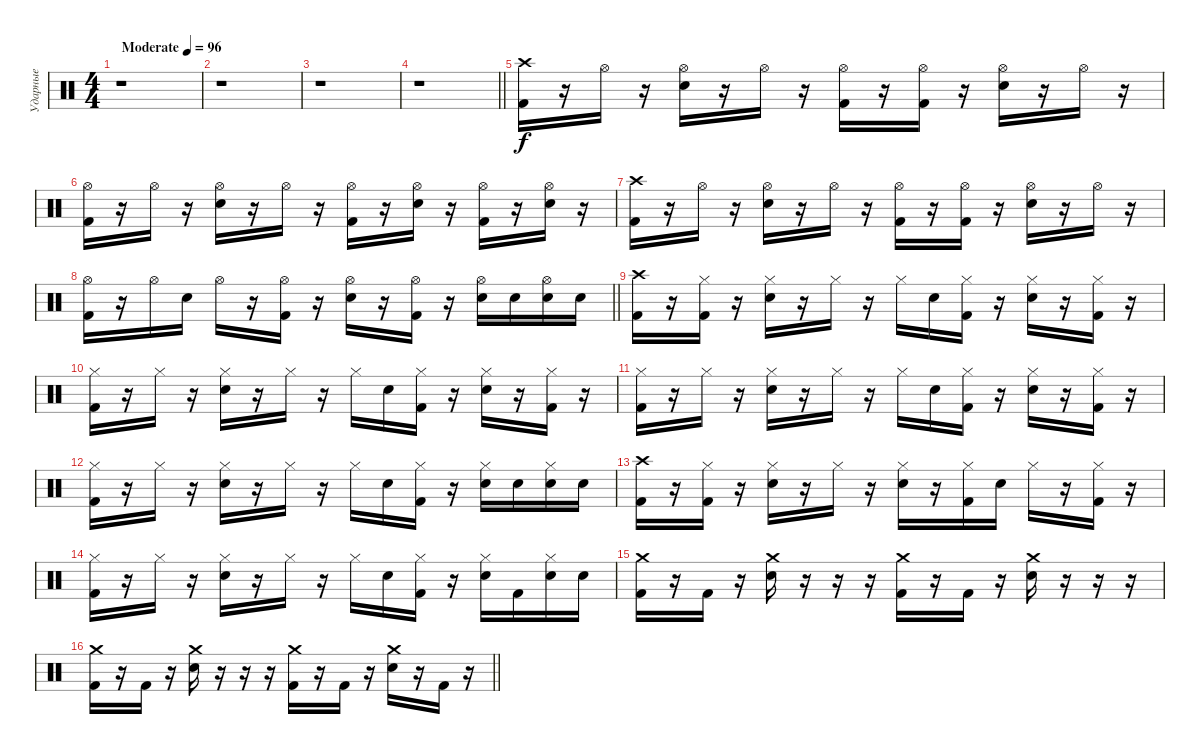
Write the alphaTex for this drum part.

\track ("Ударные" "Ударные") {instrument percussion}
\staff {score}
\articulation defaults
\ts (4 4)
\tempo (96 "Moderate")
\clef neutral
\ks c
r.1{dy f} |
r.1 |
r.1 |
\barLineRight lightlight
r.1 |
("Crash high (hit)" "Kick (hit) 2").16 r.16 "Hi-Hat (open)".16 r.16 ("Hi-Hat (open)" "Snare (hit) 2").16 r.16 "Hi-Hat (open)".16 r.16 ("Hi-Hat (open)" "Kick (hit) 2").16 r.16 ("Hi-Hat (open)" "Kick (hit) 2").16 r.16 ("Hi-Hat (open)" "Snare (hit) 2").16 r.16 "Hi-Hat (open)".16 r.16 |
("Hi-Hat (open)" "Kick (hit) 2").16 r.16 "Hi-Hat (open)".16 r.16 ("Hi-Hat (open)" "Snare (hit) 2").16 r.16 "Hi-Hat (open)".16 r.16 ("Hi-Hat (open)" "Kick (hit) 2").16 r.16 ("Hi-Hat (open)" "Snare (hit) 2").16 r.16 ("Hi-Hat (open)" "Kick (hit) 2").16 r.16 ("Hi-Hat (open)" "Snare (hit) 2").16 r.16 |
("Crash high (hit)" "Kick (hit) 2").16 r.16 "Hi-Hat (open)".16 r.16 ("Hi-Hat (open)" "Snare (hit) 2").16 r.16 "Hi-Hat (open)".16 r.16 ("Hi-Hat (open)" "Kick (hit) 2").16 r.16 ("Hi-Hat (open)" "Kick (hit) 2").16 r.16 ("Hi-Hat (open)" "Snare (hit) 2").16 r.16 "Hi-Hat (open)".16 r.16 |
\barLineRight lightlight
("Hi-Hat (open)" "Kick (hit) 2").16 r.16 "Hi-Hat (open)".16 "Snare (hit) 2".16 "Hi-Hat (open)".16 r.16 ("Hi-Hat (open)" "Kick (hit) 2").16 r.16 ("Hi-Hat (open)" "Snare (hit) 2").16 r.16 ("Hi-Hat (open)" "Kick (hit) 2").16 r.16 ("Hi-Hat (open)" "Snare (hit) 2").16 "Snare (hit) 2".16 ("Hi-Hat (open)" "Snare (hit) 2").16 "Snare (hit) 2".16 |
("Crash high (hit)" "Kick (hit) 2").16 r.16 ("Hi-Hat (closed)" "Kick (hit) 2").16 r.16 ("Hi-Hat (closed)" "Snare (hit) 2").16 r.16 "Hi-Hat (closed)".16 r.16 "Hi-Hat (closed)".16 "Snare (hit) 2".16 ("Hi-Hat (closed)" "Kick (hit) 2").16 r.16 ("Hi-Hat (closed)" "Snare (hit) 2").16 r.16 ("Hi-Hat (closed)" "Kick (hit) 2").16 r.16 |
("Hi-Hat (closed)" "Kick (hit) 2").16 r.16 "Hi-Hat (closed)".16 r.16 ("Hi-Hat (closed)" "Snare (hit) 2").16 r.16 "Hi-Hat (closed)".16 r.16 "Hi-Hat (closed)".16 "Snare (hit) 2".16 ("Hi-Hat (closed)" "Kick (hit) 2").16 r.16 ("Hi-Hat (closed)" "Snare (hit) 2").16 r.16 ("Hi-Hat (closed)" "Kick (hit) 2").16 r.16 |
("Hi-Hat (closed)" "Kick (hit) 2").16 r.16 "Hi-Hat (closed)".16 r.16 ("Hi-Hat (closed)" "Snare (hit) 2").16 r.16 "Hi-Hat (closed)".16 r.16 "Hi-Hat (closed)".16 "Snare (hit) 2".16 ("Hi-Hat (closed)" "Kick (hit) 2").16 r.16 ("Hi-Hat (closed)" "Snare (hit) 2").16 r.16 ("Hi-Hat (closed)" "Kick (hit) 2").16 r.16 |
("Hi-Hat (closed)" "Kick (hit) 2").16 r.16 "Hi-Hat (closed)".16 r.16 ("Hi-Hat (closed)" "Snare (hit) 2").16 r.16 "Hi-Hat (closed)".16 r.16 "Hi-Hat (closed)".16 "Snare (hit) 2".16 ("Hi-Hat (closed)" "Kick (hit) 2").16 r.16 ("Hi-Hat (closed)" "Snare (hit) 2").16 "Snare (hit) 2".16 ("Hi-Hat (closed)" "Snare (hit) 2").16 "Snare (hit) 2".16 |
("Crash high (hit)" "Kick (hit) 2").16 r.16 ("Hi-Hat (closed)" "Kick (hit) 2").16 r.16 ("Hi-Hat (closed)" "Snare (hit) 2").16 r.16 "Hi-Hat (closed)".16 r.16 ("Hi-Hat (closed)" "Snare (hit) 2").16 r.16 ("Hi-Hat (closed)" "Kick (hit) 2").16 "Snare (hit) 2".16 "Hi-Hat (closed)".16 r.16 ("Hi-Hat (closed)" "Kick (hit) 2").16 r.16 |
("Hi-Hat (closed)" "Kick (hit) 2").16 r.16 "Hi-Hat (closed)".16 r.16 ("Hi-Hat (closed)" "Snare (hit) 2").16 r.16 "Hi-Hat (closed)".16 r.16 "Hi-Hat (closed)".16 "Snare (hit) 2".16 ("Hi-Hat (closed)" "Kick (hit) 2").16 r.16 ("Hi-Hat (closed)" "Snare (hit) 2").16 "Kick (hit) 2".16 ("Hi-Hat (closed)" "Snare (hit) 2").16 "Snare (hit) 2".16 |
("Crash medium (hit)" "Kick (hit) 2").16 r.16 "Kick (hit) 2".16 r.16 ("Crash medium (hit)" "Snare (hit) 2").16 r.16 r.16 r.16 ("Crash medium (hit)" "Kick (hit) 2").16 r.16 "Kick (hit) 2".16 r.16 ("Crash medium (hit)" "Snare (hit) 2").16 r.16 r.16 r.16 |
\barLineRight lightlight
("Crash medium (hit)" "Kick (hit) 2").16 r.16 "Kick (hit) 2".16 r.16 ("Crash medium (hit)" "Snare (hit) 2").16 r.16 r.16 r.16 ("Crash medium (hit)" "Kick (hit) 2").16 r.16 "Kick (hit) 2".16 r.16 ("Crash medium (hit)" "Snare (hit) 2").16 r.16 "Kick (hit) 2".16 r.16
